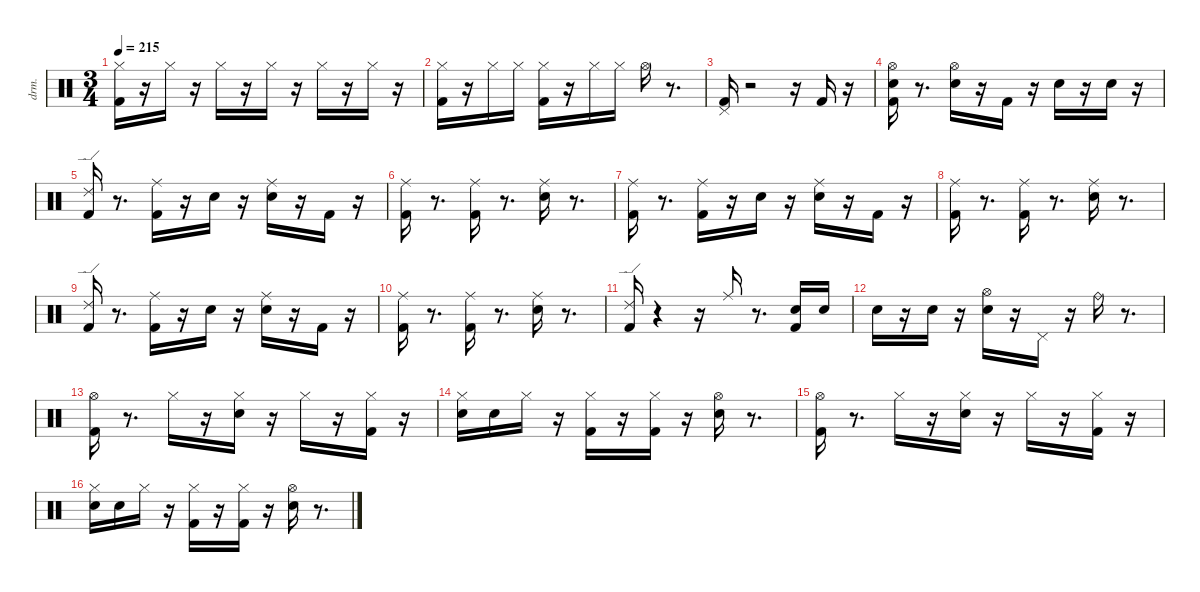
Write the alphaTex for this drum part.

\defaultSystemsLayout 4
\hideDynamics
\bracketExtendMode nobrackets
\otherSystemsTrackNameOrientation horizontal
\track ("drums(暫定)" "drm.") {instrument percussion}
\staff {score}
\articulation defaults
\ts (3 4)
\tempo 215
\clef neutral
\ks aminor
("Kick (hit) 2" "Hi-Hat (closed)"{acc #}).16{dy ff beam Down} r.16{beam Down} "Hi-Hat (closed)"{acc #}.16{dy pp beam Down} r.16{beam Down} "Hi-Hat (closed)"{acc #}.16{beam Down} r.16{beam Down} "Hi-Hat (closed)"{acc #}.16{dy fff beam Down} r.16{beam Down} "Hi-Hat (closed)"{acc #}.16{dy ppp beam Down} r.16{beam Down} "Hi-Hat (closed)"{acc #}.16{dy pp beam Down} r.16{beam Down} |
("Kick (hit) 2" "Hi-Hat (closed)"{acc #}).16{dy ff beam Down} r.16{beam Down} "Hi-Hat (closed)"{acc #}.16{dy mp beam Down} "Hi-Hat (closed)"{acc #}.16{dy pp beam Down} ("Kick (hit) 2" "Hi-Hat (closed)"{acc #}).16{dy ff beam Down} r.16{beam Down} "Hi-Hat (closed)"{acc #}.16{dy pp beam Down} "Hi-Hat (closed)"{acc #}.16{dy ppp beam Down} "Hi-Hat (open)"{acc #}.16{dy fff beam Down} r.8{d beam Down} |
("Kick (hit) 2" "Pedal Hi-Hat (hit)"{acc #}).16{beam Up} r.2{beam Up} r.16{beam Up} "Kick (hit) 2".16{dy p beam Up} r.16{beam Up} |
("Kick (hit) 2" "Snare (hit) 2" "Hi-Hat (open)"{acc #}).16{dy fff beam Down} r.8{d beam Down} ("Snare (hit) 2" "Hi-Hat (open)"{acc #}).16{dy f beam Down} r.16{beam Down} "Kick (hit) 2".16{dy ff beam Up} r.16{beam Up} "Snare (hit) 2".16{beam Down} r.16{beam Down} "Snare (hit) 2".16{dy p beam Down} r.16{beam Down} |
("Kick (hit) 2" "Ride (edge) 2").16{dy fff beam Up} r.8{d beam Up} ("Kick (hit) 2" "Ride (middle)"{acc #}).16{dy ff beam Down} r.16{beam Down} "Snare (hit) 2".16{beam Down} r.16{beam Down} ("Snare (hit) 2" "Ride (middle)"{acc #}).16{dy ppp beam Down} r.16{beam Down} "Kick (hit) 2".16{dy mp beam Up} r.16{beam Up} |
("Kick (hit) 2" "Ride (middle)"{acc #}).16{dy ff beam Down} r.8{d beam Down} ("Kick (hit) 2" "Ride (middle)"{acc #}).16{beam Down} r.8{d beam Down} ("Snare (hit) 2" "Ride (middle)"{acc #}).16{beam Down} r.8{d beam Down} |
("Kick (hit) 2" "Ride (middle)"{acc #}).16{dy fff beam Down} r.8{d beam Down} ("Kick (hit) 2" "Ride (middle)"{acc #}).16{dy ff beam Down} r.16{beam Down} "Snare (hit) 2".16{beam Down} r.16{beam Down} ("Snare (hit) 2" "Ride (middle)"{acc #}).16{dy ppp beam Down} r.16{beam Down} "Kick (hit) 2".16{dy mp beam Up} r.16{beam Up} |
("Kick (hit) 2" "Ride (middle)"{acc #}).16{dy ff beam Down} r.8{d beam Down} ("Kick (hit) 2" "Ride (middle)"{acc #}).16{beam Down} r.8{d beam Down} ("Snare (hit) 2" "Ride (middle)"{acc #}).16{beam Down} r.8{d beam Down} |
("Kick (hit) 2" "Ride (edge) 2").16{dy fff beam Up} r.8{d beam Up} ("Kick (hit) 2" "Ride (middle)"{acc #}).16{dy ff beam Down} r.16{beam Down} "Snare (hit) 2".16{beam Down} r.16{beam Down} ("Snare (hit) 2" "Ride (middle)"{acc #}).16{dy ppp beam Down} r.16{beam Down} "Kick (hit) 2".16{dy mp beam Up} r.16{beam Up} |
("Kick (hit) 2" "Ride (middle)"{acc #}).16{dy ff beam Down} r.8{d beam Down} ("Kick (hit) 2" "Ride (middle)"{acc #}).16{beam Down} r.8{d beam Down} ("Snare (hit) 2" "Ride (middle)"{acc #}).16{beam Down} r.8{d beam Down} |
("Kick (hit) 2" "Ride (edge) 2").16{dy fff beam Up} r.4{beam Up} r.16{beam Up} "Ride (middle)"{acc #}.16{beam Down} r.8{d beam Down} ("Kick (hit) 2" "Snare (hit) 2").16{beam Up} "Snare (hit) 2".16{dy p beam Up} |
"Snare (hit) 2".16{dy ff beam Down} r.16{beam Down} "Snare (hit) 2".16{beam Down} r.16{beam Down} ("Snare (hit) 2" "Hi-Hat (open)"{acc #}).16{dy fff beam Down} r.16{beam Down} "Pedal Hi-Hat (hit)"{acc #}.16{dy ff beam Up} r.16{beam Up} "Ride (bell)".16{beam Down} r.8{d beam Down} |
("Kick (hit) 2" "Hi-Hat (open)"{acc #}).16{dy fff beam Down} r.8{d beam Down} "Hi-Hat (closed)"{acc #}.16{dy f beam Down} r.16{beam Down} ("Snare (hit) 2" "Hi-Hat (closed)"{acc #}).16{dy ff beam Down} r.16{beam Down} "Hi-Hat (closed)"{acc #}.16{beam Down} r.16{beam Down} ("Kick (hit) 2" "Hi-Hat (closed)"{acc #}).16{beam Down} r.16{beam Down} |
("Snare (hit) 2" "Hi-Hat (closed)"{acc #}).16{dy p beam Down} "Snare (hit) 2".16{dy ppp beam Down} "Hi-Hat (closed)"{acc #}.16{beam Down} r.16{beam Down} ("Kick (hit) 2" "Hi-Hat (closed)"{acc #}).16{dy p beam Down} r.16{beam Down} ("Kick (hit) 2" "Hi-Hat (closed)"{acc #}).16{dy f beam Down} r.16{beam Down} ("Snare (hit) 2" "Hi-Hat (open)"{acc #}).16{dy ff beam Down} r.8{d beam Down} |
("Kick (hit) 2" "Hi-Hat (open)"{acc #}).16{dy fff beam Down} r.8{d beam Down} "Hi-Hat (closed)"{acc #}.16{dy f beam Down} r.16{beam Down} ("Snare (hit) 2" "Hi-Hat (closed)"{acc #}).16{dy ff beam Down} r.16{beam Down} "Hi-Hat (closed)"{acc #}.16{beam Down} r.16{beam Down} ("Kick (hit) 2" "Hi-Hat (closed)"{acc #}).16{beam Down} r.16{beam Down} |
("Snare (hit) 2" "Hi-Hat (closed)"{acc #}).16{dy p beam Down} "Snare (hit) 2".16{dy ppp beam Down} "Hi-Hat (closed)"{acc #}.16{beam Down} r.16{beam Down} ("Kick (hit) 2" "Hi-Hat (closed)"{acc #}).16{dy p beam Down} r.16{beam Down} ("Kick (hit) 2" "Hi-Hat (closed)"{acc #}).16{dy f beam Down} r.16{beam Down} ("Snare (hit) 2" "Hi-Hat (open)"{acc #}).16{dy ff beam Down} r.8{d beam Down}
